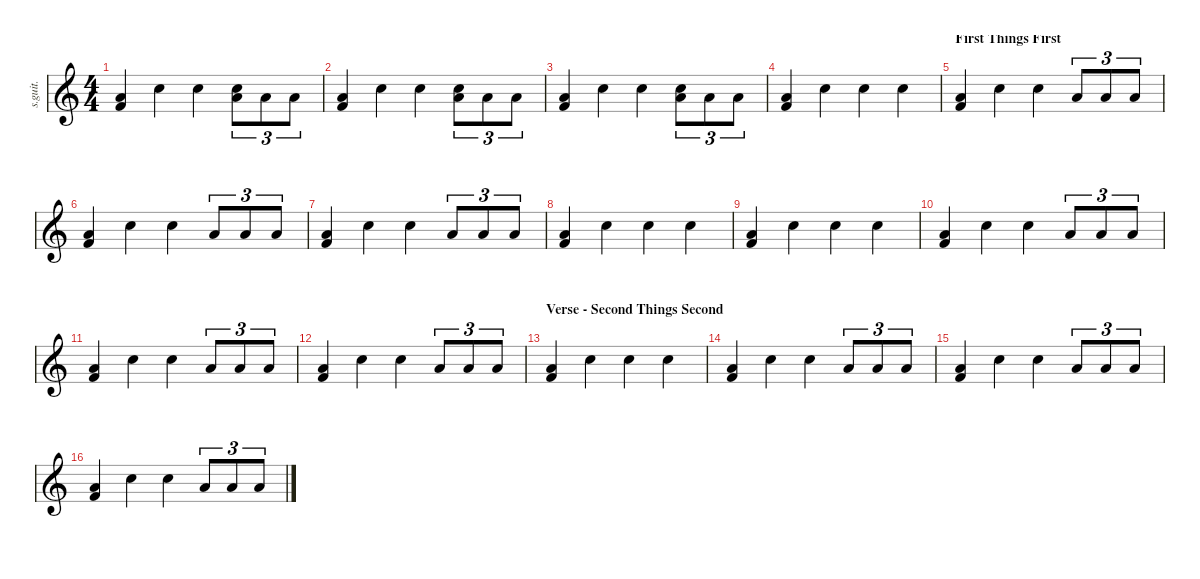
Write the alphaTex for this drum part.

\defaultSystemsLayout 4
\hideDynamics
\bracketExtendMode nobrackets
\track ("Daniel Platzman - Drums" "s.guit.") {instrument percussion}
\staff {score}
\articulation defaults
\ts (4 4)
\beaming (8 2 2 2 2)
\tempo (125 hide)
\clef g2
\ks c
("Low Floor Tom (hit)" "Kick (hit) 2").4{lyrics (0 "") lyrics (1 "") lyrics (2 "") lyrics (3 "") lyrics (4 "") dy f} "Hand Clap (hit)".4{lyrics (0 "") lyrics (1 "") lyrics (2 "") lyrics (3 "") lyrics (4 "")} "Electric Snare (hit)".4{lyrics (0 "") lyrics (1 "") lyrics (2 "") lyrics (3 "") lyrics (4 "")} ("Hand Clap (hit)" "Low Floor Tom (hit)").8{tu (3 2) lyrics (0 "") lyrics (1 "") lyrics (2 "") lyrics (3 "") lyrics (4 "")} "Low Floor Tom (hit)".8{tu (3 2) lyrics (0 "") lyrics (1 "") lyrics (2 "") lyrics (3 "") lyrics (4 "")} "Low Floor Tom (hit)".8{tu (3 2) lyrics (0 "") lyrics (1 "") lyrics (2 "") lyrics (3 "") lyrics (4 "")} |
("Low Floor Tom (hit)" "Kick (hit) 2").4{lyrics (0 "") lyrics (1 "") lyrics (2 "") lyrics (3 "") lyrics (4 "")} "Hand Clap (hit)".4{lyrics (0 "") lyrics (1 "") lyrics (2 "") lyrics (3 "") lyrics (4 "")} "Electric Snare (hit)".4{lyrics (0 "") lyrics (1 "") lyrics (2 "") lyrics (3 "") lyrics (4 "")} ("Hand Clap (hit)" "Low Floor Tom (hit)").8{tu (3 2) lyrics (0 "") lyrics (1 "") lyrics (2 "") lyrics (3 "") lyrics (4 "")} "Low Floor Tom (hit)".8{tu (3 2) lyrics (0 "") lyrics (1 "") lyrics (2 "") lyrics (3 "") lyrics (4 "")} "Low Floor Tom (hit)".8{tu (3 2) lyrics (0 "") lyrics (1 "") lyrics (2 "") lyrics (3 "") lyrics (4 "")} |
("Low Floor Tom (hit)" "Kick (hit) 2").4{lyrics (0 "") lyrics (1 "") lyrics (2 "") lyrics (3 "") lyrics (4 "")} "Hand Clap (hit)".4{lyrics (0 "") lyrics (1 "") lyrics (2 "") lyrics (3 "") lyrics (4 "")} "Electric Snare (hit)".4{lyrics (0 "") lyrics (1 "") lyrics (2 "") lyrics (3 "") lyrics (4 "")} ("Hand Clap (hit)" "Low Floor Tom (hit)").8{tu (3 2) lyrics (0 "") lyrics (1 "") lyrics (2 "") lyrics (3 "") lyrics (4 "")} "Low Floor Tom (hit)".8{tu (3 2) lyrics (0 "") lyrics (1 "") lyrics (2 "") lyrics (3 "") lyrics (4 "")} "Low Floor Tom (hit)".8{tu (3 2) lyrics (0 "") lyrics (1 "") lyrics (2 "") lyrics (3 "") lyrics (4 "")} |
("Low Floor Tom (hit)" "Kick (hit) 2").4{lyrics (0 "") lyrics (1 "") lyrics (2 "") lyrics (3 "") lyrics (4 "")} "Hand Clap (hit)".4{lyrics (0 "") lyrics (1 "") lyrics (2 "") lyrics (3 "") lyrics (4 "")} "Electric Snare (hit)".4{lyrics (0 "") lyrics (1 "") lyrics (2 "") lyrics (3 "") lyrics (4 "")} "Hand Clap (hit)".4{lyrics (0 "") lyrics (1 "") lyrics (2 "") lyrics (3 "") lyrics (4 "")} |
\section ("" "First Things First")
("Low Floor Tom (hit)" "Kick (hit) 2").4{lyrics (0 "") lyrics (1 "") lyrics (2 "") lyrics (3 "") lyrics (4 "")} "Hand Clap (hit)".4{lyrics (0 "") lyrics (1 "") lyrics (2 "") lyrics (3 "") lyrics (4 "")} "Electric Snare (hit)".4{lyrics (0 "") lyrics (1 "") lyrics (2 "") lyrics (3 "") lyrics (4 "")} "Low Floor Tom (hit)".8{tu (3 2) lyrics (0 "") lyrics (1 "") lyrics (2 "") lyrics (3 "") lyrics (4 "")} "Low Floor Tom (hit)".8{tu (3 2) lyrics (0 "") lyrics (1 "") lyrics (2 "") lyrics (3 "") lyrics (4 "")} "Low Floor Tom (hit)".8{tu (3 2) lyrics (0 "") lyrics (1 "") lyrics (2 "") lyrics (3 "") lyrics (4 "")} |
("Low Floor Tom (hit)" "Kick (hit) 2").4{lyrics (0 "") lyrics (1 "") lyrics (2 "") lyrics (3 "") lyrics (4 "")} "Hand Clap (hit)".4{lyrics (0 "") lyrics (1 "") lyrics (2 "") lyrics (3 "") lyrics (4 "")} "Electric Snare (hit)".4{lyrics (0 "") lyrics (1 "") lyrics (2 "") lyrics (3 "") lyrics (4 "")} "Low Floor Tom (hit)".8{tu (3 2) lyrics (0 "") lyrics (1 "") lyrics (2 "") lyrics (3 "") lyrics (4 "")} "Low Floor Tom (hit)".8{tu (3 2) lyrics (0 "") lyrics (1 "") lyrics (2 "") lyrics (3 "") lyrics (4 "")} "Low Floor Tom (hit)".8{tu (3 2) lyrics (0 "") lyrics (1 "") lyrics (2 "") lyrics (3 "") lyrics (4 "")} |
("Low Floor Tom (hit)" "Kick (hit) 2").4{lyrics (0 "") lyrics (1 "") lyrics (2 "") lyrics (3 "") lyrics (4 "")} "Hand Clap (hit)".4{lyrics (0 "") lyrics (1 "") lyrics (2 "") lyrics (3 "") lyrics (4 "")} "Electric Snare (hit)".4{lyrics (0 "") lyrics (1 "") lyrics (2 "") lyrics (3 "") lyrics (4 "")} "Low Floor Tom (hit)".8{tu (3 2) lyrics (0 "") lyrics (1 "") lyrics (2 "") lyrics (3 "") lyrics (4 "")} "Low Floor Tom (hit)".8{tu (3 2) lyrics (0 "") lyrics (1 "") lyrics (2 "") lyrics (3 "") lyrics (4 "")} "Low Floor Tom (hit)".8{tu (3 2) lyrics (0 "") lyrics (1 "") lyrics (2 "") lyrics (3 "") lyrics (4 "")} |
("Low Floor Tom (hit)" "Kick (hit) 2").4{lyrics (0 "") lyrics (1 "") lyrics (2 "") lyrics (3 "") lyrics (4 "")} "Hand Clap (hit)".4{lyrics (0 "") lyrics (1 "") lyrics (2 "") lyrics (3 "") lyrics (4 "")} "Electric Snare (hit)".4{lyrics (0 "") lyrics (1 "") lyrics (2 "") lyrics (3 "") lyrics (4 "")} "Hand Clap (hit)".4{lyrics (0 "") lyrics (1 "") lyrics (2 "") lyrics (3 "") lyrics (4 "")} |
("Low Floor Tom (hit)" "Kick (hit) 2").4{lyrics (0 "") lyrics (1 "") lyrics (2 "") lyrics (3 "") lyrics (4 "")} "Hand Clap (hit)".4{lyrics (0 "") lyrics (1 "") lyrics (2 "") lyrics (3 "") lyrics (4 "")} "Electric Snare (hit)".4{lyrics (0 "") lyrics (1 "") lyrics (2 "") lyrics (3 "") lyrics (4 "")} "Hand Clap (hit)".4{lyrics (0 "") lyrics (1 "") lyrics (2 "") lyrics (3 "") lyrics (4 "")} |
("Low Floor Tom (hit)" "Kick (hit) 2").4{lyrics (0 "") lyrics (1 "") lyrics (2 "") lyrics (3 "") lyrics (4 "")} "Hand Clap (hit)".4{lyrics (0 "") lyrics (1 "") lyrics (2 "") lyrics (3 "") lyrics (4 "")} "Electric Snare (hit)".4{lyrics (0 "") lyrics (1 "") lyrics (2 "") lyrics (3 "") lyrics (4 "")} "Low Floor Tom (hit)".8{tu (3 2) lyrics (0 "") lyrics (1 "") lyrics (2 "") lyrics (3 "") lyrics (4 "")} "Low Floor Tom (hit)".8{tu (3 2) lyrics (0 "") lyrics (1 "") lyrics (2 "") lyrics (3 "") lyrics (4 "")} "Low Floor Tom (hit)".8{tu (3 2) lyrics (0 "") lyrics (1 "") lyrics (2 "") lyrics (3 "") lyrics (4 "")} |
("Low Floor Tom (hit)" "Kick (hit) 2").4{lyrics (0 "") lyrics (1 "") lyrics (2 "") lyrics (3 "") lyrics (4 "")} "Hand Clap (hit)".4{lyrics (0 "") lyrics (1 "") lyrics (2 "") lyrics (3 "") lyrics (4 "")} "Electric Snare (hit)".4{lyrics (0 "") lyrics (1 "") lyrics (2 "") lyrics (3 "") lyrics (4 "")} "Low Floor Tom (hit)".8{tu (3 2) lyrics (0 "") lyrics (1 "") lyrics (2 "") lyrics (3 "") lyrics (4 "")} "Low Floor Tom (hit)".8{tu (3 2) lyrics (0 "") lyrics (1 "") lyrics (2 "") lyrics (3 "") lyrics (4 "")} "Low Floor Tom (hit)".8{tu (3 2) lyrics (0 "") lyrics (1 "") lyrics (2 "") lyrics (3 "") lyrics (4 "")} |
("Low Floor Tom (hit)" "Kick (hit) 2").4{lyrics (0 "") lyrics (1 "") lyrics (2 "") lyrics (3 "") lyrics (4 "")} "Hand Clap (hit)".4{lyrics (0 "") lyrics (1 "") lyrics (2 "") lyrics (3 "") lyrics (4 "")} "Electric Snare (hit)".4{lyrics (0 "") lyrics (1 "") lyrics (2 "") lyrics (3 "") lyrics (4 "")} "Low Floor Tom (hit)".8{tu (3 2) lyrics (0 "") lyrics (1 "") lyrics (2 "") lyrics (3 "") lyrics (4 "")} "Low Floor Tom (hit)".8{tu (3 2) lyrics (0 "") lyrics (1 "") lyrics (2 "") lyrics (3 "") lyrics (4 "")} "Low Floor Tom (hit)".8{tu (3 2) lyrics (0 "") lyrics (1 "") lyrics (2 "") lyrics (3 "") lyrics (4 "")} |
\section ("" "Verse - Second Things Second")
("Low Floor Tom (hit)" "Kick (hit) 2").4{lyrics (0 "") lyrics (1 "") lyrics (2 "") lyrics (3 "") lyrics (4 "")} "Hand Clap (hit)".4{lyrics (0 "") lyrics (1 "") lyrics (2 "") lyrics (3 "") lyrics (4 "")} "Electric Snare (hit)".4{lyrics (0 "") lyrics (1 "") lyrics (2 "") lyrics (3 "") lyrics (4 "")} "Hand Clap (hit)".4{lyrics (0 "") lyrics (1 "") lyrics (2 "") lyrics (3 "") lyrics (4 "")} |
("Low Floor Tom (hit)" "Kick (hit) 2").4{lyrics (0 "") lyrics (1 "") lyrics (2 "") lyrics (3 "") lyrics (4 "")} "Hand Clap (hit)".4{lyrics (0 "") lyrics (1 "") lyrics (2 "") lyrics (3 "") lyrics (4 "")} "Electric Snare (hit)".4{lyrics (0 "") lyrics (1 "") lyrics (2 "") lyrics (3 "") lyrics (4 "")} "Low Floor Tom (hit)".8{tu (3 2) lyrics (0 "") lyrics (1 "") lyrics (2 "") lyrics (3 "") lyrics (4 "")} "Low Floor Tom (hit)".8{tu (3 2) lyrics (0 "") lyrics (1 "") lyrics (2 "") lyrics (3 "") lyrics (4 "")} "Low Floor Tom (hit)".8{tu (3 2) lyrics (0 "") lyrics (1 "") lyrics (2 "") lyrics (3 "") lyrics (4 "")} |
("Low Floor Tom (hit)" "Kick (hit) 2").4{lyrics (0 "") lyrics (1 "") lyrics (2 "") lyrics (3 "") lyrics (4 "")} "Hand Clap (hit)".4{lyrics (0 "") lyrics (1 "") lyrics (2 "") lyrics (3 "") lyrics (4 "")} "Electric Snare (hit)".4{lyrics (0 "") lyrics (1 "") lyrics (2 "") lyrics (3 "") lyrics (4 "")} "Low Floor Tom (hit)".8{tu (3 2) lyrics (0 "") lyrics (1 "") lyrics (2 "") lyrics (3 "") lyrics (4 "")} "Low Floor Tom (hit)".8{tu (3 2) lyrics (0 "") lyrics (1 "") lyrics (2 "") lyrics (3 "") lyrics (4 "")} "Low Floor Tom (hit)".8{tu (3 2) lyrics (0 "") lyrics (1 "") lyrics (2 "") lyrics (3 "") lyrics (4 "")} |
("Low Floor Tom (hit)" "Kick (hit) 2").4{lyrics (0 "") lyrics (1 "") lyrics (2 "") lyrics (3 "") lyrics (4 "")} "Hand Clap (hit)".4{lyrics (0 "") lyrics (1 "") lyrics (2 "") lyrics (3 "") lyrics (4 "")} "Electric Snare (hit)".4{lyrics (0 "") lyrics (1 "") lyrics (2 "") lyrics (3 "") lyrics (4 "")} "Low Floor Tom (hit)".8{tu (3 2) lyrics (0 "") lyrics (1 "") lyrics (2 "") lyrics (3 "") lyrics (4 "")} "Low Floor Tom (hit)".8{tu (3 2) lyrics (0 "") lyrics (1 "") lyrics (2 "") lyrics (3 "") lyrics (4 "")} "Low Floor Tom (hit)".8{tu (3 2) lyrics (0 "") lyrics (1 "") lyrics (2 "") lyrics (3 "") lyrics (4 "")}
